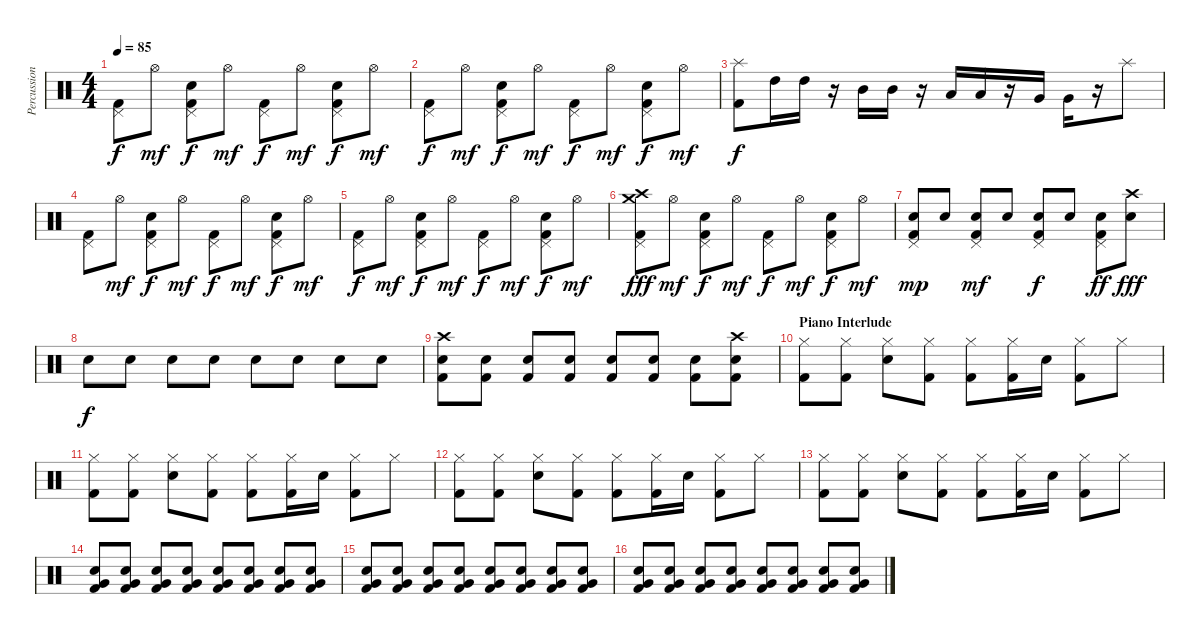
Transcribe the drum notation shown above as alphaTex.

\track ("Percussion" "Percussion") {instrument percussion}
\staff {score}
\articulation defaults
\ts (4 4)
\tempo 85
\clef neutral
\ks c
("Pedal Hi-Hat (hit)" "Kick (hit) 2").8{dy f} "Hi-Hat (open)".8{dy mf} ("Pedal Hi-Hat (hit)" "Electric Snare (hit)" "Kick (hit) 2").8{dy f} "Hi-Hat (open)".8{dy mf} ("Pedal Hi-Hat (hit)" "Kick (hit) 2").8{dy f} "Hi-Hat (open)".8{dy mf} ("Pedal Hi-Hat (hit)" "Electric Snare (hit)" "Kick (hit) 2").8{dy f} "Hi-Hat (open)".8{dy mf} |
("Pedal Hi-Hat (hit)" "Kick (hit) 2").8{dy f} "Hi-Hat (open)".8{dy mf} ("Pedal Hi-Hat (hit)" "Electric Snare (hit)" "Kick (hit) 2").8{dy f} "Hi-Hat (open)".8{dy mf} ("Pedal Hi-Hat (hit)" "Kick (hit) 2").8{dy f} "Hi-Hat (open)".8{dy mf} ("Pedal Hi-Hat (hit)" "Electric Snare (hit)" "Kick (hit) 2").8{dy f} "Hi-Hat (open)".8{dy mf} |
("Splash (hit)" "Kick (hit) 2").8{dy f} "High Tom (hit)".16 "High Tom (hit)".16 r.16 "Mid Tom (hit)".16 "Mid Tom (hit)".16 r.16 "Low Tom (hit)".16 "Low Tom (hit)".16 r.16 "Very Low Tom (hit)".16 "Very Low Tom (hit)".16 r.16 "Splash (hit)".8 |
("Pedal Hi-Hat (hit)" "Kick (hit) 2").8 "Hi-Hat (open)".8{dy mf} ("Pedal Hi-Hat (hit)" "Electric Snare (hit)" "Kick (hit) 2").8{dy f} "Hi-Hat (open)".8{dy mf} ("Pedal Hi-Hat (hit)" "Kick (hit) 2").8{dy f} "Hi-Hat (open)".8{dy mf} ("Pedal Hi-Hat (hit)" "Electric Snare (hit)" "Kick (hit) 2").8{dy f} "Hi-Hat (open)".8{dy mf} |
("Pedal Hi-Hat (hit)" "Kick (hit) 2").8{dy f} "Hi-Hat (open)".8{dy mf} ("Pedal Hi-Hat (hit)" "Electric Snare (hit)" "Kick (hit) 2").8{dy f} "Hi-Hat (open)".8{dy mf} ("Pedal Hi-Hat (hit)" "Kick (hit) 2").8{dy f} "Hi-Hat (open)".8{dy mf} ("Pedal Hi-Hat (hit)" "Electric Snare (hit)" "Kick (hit) 2").8{dy f} "Hi-Hat (open)".8{dy mf} |
("Crash high (hit)" "Pedal Hi-Hat (hit)" "Crash medium (hit)" "Kick (hit) 2").8{dy fff} "Hi-Hat (open)".8{dy mf} ("Pedal Hi-Hat (hit)" "Electric Snare (hit)" "Kick (hit) 2").8{dy f} "Hi-Hat (open)".8{dy mf} ("Pedal Hi-Hat (hit)" "Kick (hit) 2").8{dy f} "Hi-Hat (open)".8{dy mf} ("Pedal Hi-Hat (hit)" "Electric Snare (hit)" "Kick (hit) 2").8{dy f} "Hi-Hat (open)".8{dy mf} |
("Pedal Hi-Hat (hit)" "Electric Snare (hit)" "Kick (hit) 2").8{dy mp} "Electric Snare (hit)".8 ("Pedal Hi-Hat (hit)" "Electric Snare (hit)" "Kick (hit) 2").8{dy mf} "Electric Snare (hit)".8 ("Pedal Hi-Hat (hit)" "Electric Snare (hit)" "Kick (hit) 2").8{dy f} "Electric Snare (hit)".8 ("Pedal Hi-Hat (hit)" "Electric Snare (hit)" "Kick (hit) 2").8{dy ff} ("Crash high (hit)" "Electric Snare (hit)").8{dy fff} |
"Electric Snare (hit)".8{dy f} "Electric Snare (hit)".8 "Electric Snare (hit)".8 "Electric Snare (hit)".8 "Electric Snare (hit)".8 "Electric Snare (hit)".8 "Electric Snare (hit)".8 "Electric Snare (hit)".8 |
("Crash high (hit)" "Electric Snare (hit)" "Kick (hit) 2").8 ("Electric Snare (hit)" "Kick (hit) 2").8 ("Electric Snare (hit)" "Kick (hit) 2").8 ("Electric Snare (hit)" "Kick (hit) 2").8 ("Electric Snare (hit)" "Kick (hit) 2").8 ("Electric Snare (hit)" "Kick (hit) 2").8 ("Electric Snare (hit)" "Kick (hit) 2").8 ("Crash high (hit)" "Electric Snare (hit)" "Kick (hit) 2").8 |
\section ("" "Piano Interlude")
("Hi-Hat (closed)" "Kick (hit) 2").8 ("Hi-Hat (closed)" "Kick (hit) 2").8 ("Hi-Hat (closed)" "Electric Snare (hit)").8 ("Hi-Hat (closed)" "Kick (hit) 2").8 ("Hi-Hat (closed)" "Kick (hit) 2").8 ("Hi-Hat (closed)" "Kick (hit) 2").16 "Electric Snare (hit)".16 ("Hi-Hat (closed)" "Kick (hit) 2").8 "Hi-Hat (closed)".8 |
("Hi-Hat (closed)" "Kick (hit) 2").8 ("Hi-Hat (closed)" "Kick (hit) 2").8 ("Hi-Hat (closed)" "Electric Snare (hit)").8 ("Hi-Hat (closed)" "Kick (hit) 2").8 ("Hi-Hat (closed)" "Kick (hit) 2").8 ("Hi-Hat (closed)" "Kick (hit) 2").16 "Electric Snare (hit)".16 ("Hi-Hat (closed)" "Kick (hit) 2").8 "Hi-Hat (closed)".8 |
("Hi-Hat (closed)" "Kick (hit) 2").8 ("Hi-Hat (closed)" "Kick (hit) 2").8 ("Hi-Hat (closed)" "Electric Snare (hit)").8 ("Hi-Hat (closed)" "Kick (hit) 2").8 ("Hi-Hat (closed)" "Kick (hit) 2").8 ("Hi-Hat (closed)" "Kick (hit) 2").16 "Electric Snare (hit)".16 ("Hi-Hat (closed)" "Kick (hit) 2").8 "Hi-Hat (closed)".8 |
("Hi-Hat (closed)" "Kick (hit) 2").8 ("Hi-Hat (closed)" "Kick (hit) 2").8 ("Hi-Hat (closed)" "Electric Snare (hit)").8 ("Hi-Hat (closed)" "Kick (hit) 2").8 ("Hi-Hat (closed)" "Kick (hit) 2").8 ("Hi-Hat (closed)" "Kick (hit) 2").16 "Electric Snare (hit)".16 ("Hi-Hat (closed)" "Kick (hit) 2").8 "Hi-Hat (closed)".8 |
("Very Low Tom (hit)" "Electric Snare (hit)" "Kick (hit) 2").8 ("Very Low Tom (hit)" "Electric Snare (hit)" "Kick (hit) 2").8 ("Very Low Tom (hit)" "Electric Snare (hit)" "Kick (hit) 2").8 ("Very Low Tom (hit)" "Electric Snare (hit)" "Kick (hit) 2").8 ("Very Low Tom (hit)" "Electric Snare (hit)" "Kick (hit) 2").8 ("Very Low Tom (hit)" "Electric Snare (hit)" "Kick (hit) 2").8 ("Very Low Tom (hit)" "Electric Snare (hit)" "Kick (hit) 2").8 ("Very Low Tom (hit)" "Electric Snare (hit)" "Kick (hit) 2").8 |
("Very Low Tom (hit)" "Electric Snare (hit)" "Kick (hit) 2").8 ("Very Low Tom (hit)" "Electric Snare (hit)" "Kick (hit) 2").8 ("Very Low Tom (hit)" "Electric Snare (hit)" "Kick (hit) 2").8 ("Very Low Tom (hit)" "Electric Snare (hit)" "Kick (hit) 2").8 ("Very Low Tom (hit)" "Electric Snare (hit)" "Kick (hit) 2").8 ("Very Low Tom (hit)" "Electric Snare (hit)" "Kick (hit) 2").8 ("Very Low Tom (hit)" "Electric Snare (hit)" "Kick (hit) 2").8 ("Very Low Tom (hit)" "Electric Snare (hit)" "Kick (hit) 2").8 |
("Very Low Tom (hit)" "Electric Snare (hit)" "Kick (hit) 2").8 ("Very Low Tom (hit)" "Electric Snare (hit)" "Kick (hit) 2").8 ("Very Low Tom (hit)" "Electric Snare (hit)" "Kick (hit) 2").8 ("Very Low Tom (hit)" "Electric Snare (hit)" "Kick (hit) 2").8 ("Very Low Tom (hit)" "Electric Snare (hit)" "Kick (hit) 2").8 ("Very Low Tom (hit)" "Electric Snare (hit)" "Kick (hit) 2").8 ("Very Low Tom (hit)" "Electric Snare (hit)" "Kick (hit) 2").8 ("Very Low Tom (hit)" "Electric Snare (hit)" "Kick (hit) 2").8
